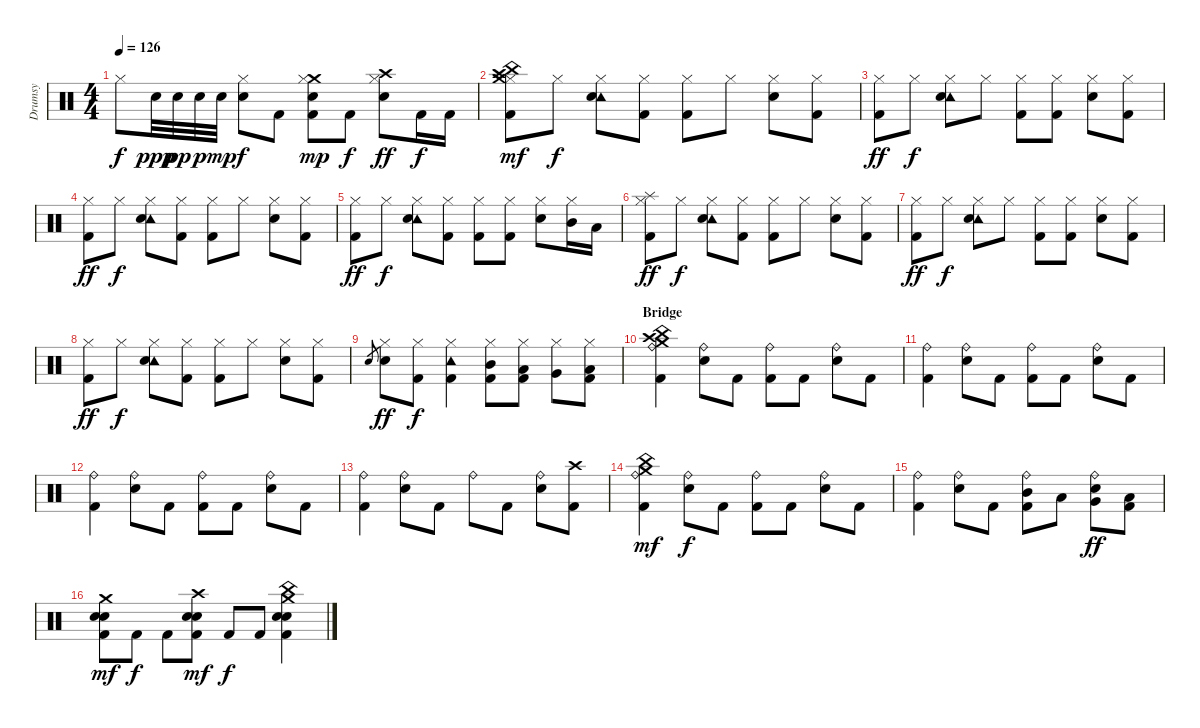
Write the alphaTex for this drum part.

\track ("Drumsy" "Drumsy") {instrument percussion}
\staff {score}
\articulation defaults
\ts (4 4)
\tempo 126
\clef neutral
\ks c "Hi-Hat (closed)".8{dy f} "Snare (hit) 2".32{dy ppp} "Snare (hit) 2".32{dy pp} "Snare (hit) 2".32{dy p} "Snare (hit) 2".32{dy mp}
("Hi-Hat (closed)" "Electric Snare (hit)").8{dy f} "Kick (hit) 2".8 ("Crash medium (hit)" "Hi-Hat (closed)" "Snare (hit) 2" "Kick (hit) 2").8{dy mp} "Kick (hit) 2".8{dy f} ("Crash high (hit)" "Hi-Hat (closed)" "Electric Snare (hit)").8{dy ff} "Kick (hit) 2".16{dy f} "Kick (hit) 2".16 |
\section ("" "")
("Hi-Hat (closed)" "Crash medium (hit)" "Crash high (hit)" "China (hit)" "Kick (hit) 2").8{dy mf} "Hi-Hat (closed)".8{dy f} ("Hi-Hat (closed)" "Tambourine (hit)" "Electric Snare (hit)").8 ("Hi-Hat (closed)" "Kick (hit) 2").8 ("Hi-Hat (closed)" "Kick (hit) 2").8 "Hi-Hat (closed)".8 ("Hi-Hat (closed)" "Electric Snare (hit)").8 ("Hi-Hat (closed)" "Kick (hit) 2").8 |
("Hi-Hat (closed)" "Kick (hit) 2").8{dy ff} "Hi-Hat (closed)".8{dy f} ("Hi-Hat (closed)" "Tambourine (hit)" "Electric Snare (hit)").8 "Hi-Hat (closed)".8 ("Hi-Hat (closed)" "Kick (hit) 2").8 ("Hi-Hat (closed)" "Kick (hit) 2").8 ("Hi-Hat (closed)" "Electric Snare (hit)").8 ("Hi-Hat (closed)" "Kick (hit) 2").8 |
("Hi-Hat (closed)" "Kick (hit) 2").8{dy ff} "Hi-Hat (closed)".8{dy f} ("Hi-Hat (closed)" "Tambourine (hit)" "Electric Snare (hit)").8 ("Hi-Hat (closed)" "Kick (hit) 2").8 ("Hi-Hat (closed)" "Kick (hit) 2").8 "Hi-Hat (closed)".8 ("Hi-Hat (closed)" "Electric Snare (hit)").8 ("Hi-Hat (closed)" "Kick (hit) 2").8 |
("Hi-Hat (closed)" "Kick (hit) 2").8{dy ff} "Hi-Hat (closed)".8{dy f} ("Hi-Hat (closed)" "Tambourine (hit)" "Electric Snare (hit)").8 ("Hi-Hat (closed)" "Kick (hit) 2").8 ("Hi-Hat (closed)" "Kick (hit) 2").8 ("Hi-Hat (closed)" "Kick (hit) 2").8 ("Hi-Hat (closed)" "Electric Snare (hit)").8 ("Hi-Hat (closed)" "Mid Tom (hit)").16 "Low Tom (hit)".16 |
("Hi-Hat (closed)" "Splash (hit)" "Kick (hit) 2").8{dy ff} "Hi-Hat (closed)".8{dy f} ("Hi-Hat (closed)" "Tambourine (hit)" "Electric Snare (hit)").8 ("Hi-Hat (closed)" "Kick (hit) 2").8 ("Hi-Hat (closed)" "Kick (hit) 2").8 "Hi-Hat (closed)".8 ("Hi-Hat (closed)" "Electric Snare (hit)").8 ("Hi-Hat (closed)" "Kick (hit) 2").8 |
("Hi-Hat (closed)" "Kick (hit) 2").8{dy ff} "Hi-Hat (closed)".8{dy f} ("Hi-Hat (closed)" "Tambourine (hit)" "Electric Snare (hit)").8 "Hi-Hat (closed)".8 ("Hi-Hat (closed)" "Kick (hit) 2").8 ("Hi-Hat (closed)" "Kick (hit) 2").8 ("Hi-Hat (closed)" "Electric Snare (hit)").8 ("Hi-Hat (closed)" "Kick (hit) 2").8 |
("Hi-Hat (closed)" "Kick (hit) 2").8{dy ff} "Hi-Hat (closed)".8{dy f} ("Hi-Hat (closed)" "Tambourine (hit)" "Electric Snare (hit)").8 ("Hi-Hat (closed)" "Kick (hit) 2").8 ("Hi-Hat (closed)" "Kick (hit) 2").8 "Hi-Hat (closed)".8 ("Hi-Hat (closed)" "Electric Snare (hit)").8 ("Hi-Hat (closed)" "Kick (hit) 2").8 |
"Snare (hit) 2".8{gr} ("Hi-Hat (closed)" "Electric Snare (hit)").8{dy ff} ("Hi-Hat (closed)" "Kick (hit) 2").8{dy f} ("Hi-Hat (closed)" "Tambourine (hit)" "Kick (hit) 2").4 ("Hi-Hat (closed)" "Mid Tom (hit)" "Kick (hit) 2").8 ("Hi-Hat (closed)" "Low Tom (hit)" "Kick (hit) 2").8 ("Hi-Hat (closed)" "Very Low Tom (hit)").8 ("Hi-Hat (closed)" "Low Floor Tom (hit)" "Kick (hit) 2").8 |
\section ("" "Bridge")
("Ride (bell)" "Crash medium (hit)" "China (hit)" "Crash high (hit)" "Kick (hit) 2").4 ("Ride (bell)" "Electric Snare (hit)").8 "Kick (hit) 2".8 ("Ride (bell)" "Kick (hit) 2").8 "Kick (hit) 2".8 ("Ride (bell)" "Electric Snare (hit)").8 "Kick (hit) 2".8 |
("Ride (bell)" "Kick (hit) 2").4 ("Ride (bell)" "Electric Snare (hit)").8 "Kick (hit) 2".8 ("Ride (bell)" "Kick (hit) 2").8 "Kick (hit) 2".8 ("Ride (bell)" "Electric Snare (hit)").8 "Kick (hit) 2".8 |
("Ride (bell)" "Kick (hit) 2").4 ("Ride (bell)" "Electric Snare (hit)").8 "Kick (hit) 2".8 ("Ride (bell)" "Kick (hit) 2").8 "Kick (hit) 2".8 ("Ride (bell)" "Electric Snare (hit)").8 "Kick (hit) 2".8 |
("Ride (bell)" "Kick (hit) 2").4 ("Ride (bell)" "Electric Snare (hit)").8 "Kick (hit) 2".8 "Ride (bell)".8 "Kick (hit) 2".8 ("Ride (bell)" "Electric Snare (hit)").8 ("Crash high (hit)" "Kick (hit) 2").8 |
("Ride (bell)" "Crash medium (hit)" "China (hit)" "Kick (hit) 2").4{dy mf} ("Ride (bell)" "Electric Snare (hit)").8{dy f} "Kick (hit) 2".8 ("Ride (bell)" "Kick (hit) 2").8 "Kick (hit) 2".8 ("Ride (bell)" "Electric Snare (hit)").8 "Kick (hit) 2".8 |
("Ride (bell)" "Kick (hit) 2").4 ("Ride (bell)" "Electric Snare (hit)").8 "Kick (hit) 2".8 ("Ride (bell)" "Mid Tom (hit)" "Kick (hit) 2").8 "Low Tom (hit)".8 ("Ride (bell)" "Very Low Tom (hit)" "Electric Snare (hit)").8{dy ff} ("Low Tom (hit)" "Kick (hit) 2").8 |
("Crash medium (hit)" "Snare (hit) 2" "Electric Snare (hit)" "Kick (hit) 2").8{dy mf} "Kick (hit) 2".8{dy f} "Kick (hit) 2".8 ("Crash high (hit)" "Snare (hit) 2" "Electric Snare (hit)" "Kick (hit) 2").8{dy mf} "Kick (hit) 2".8{dy f} "Kick (hit) 2".8 ("Crash medium (hit)" "China (hit)" "Snare (hit) 2" "Electric Snare (hit)" "Kick (hit) 2").4
